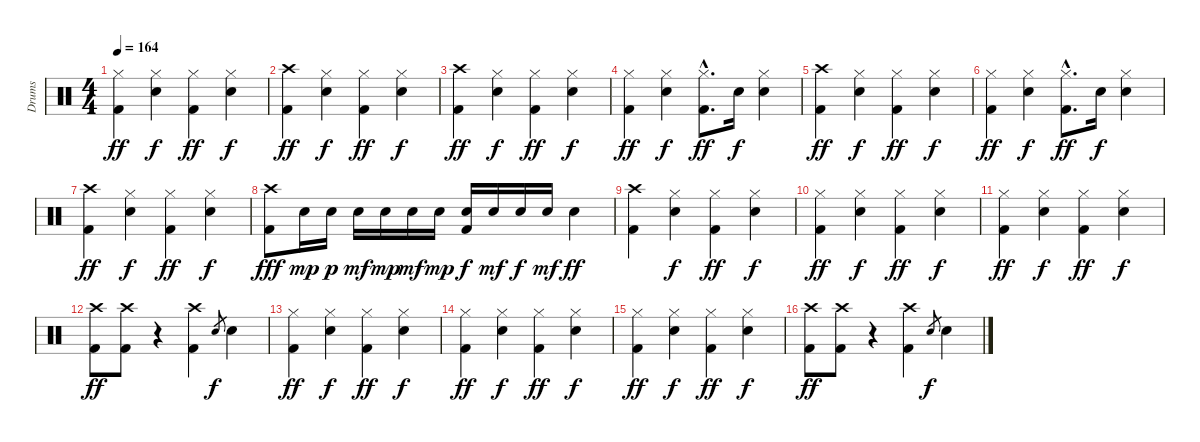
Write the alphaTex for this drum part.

\track ("Drums" "Drums") {instrument percussion}
\staff {score}
\articulation defaults
\ts (4 4)
\tempo 164
\clef neutral
\ks c
("Hi-Hat (closed)" "Kick (hit) 2").4{dy ff} ("Hi-Hat (closed)" "Snare (hit) 2").4{dy f} ("Hi-Hat (closed)" "Kick (hit) 2").4{dy ff} ("Hi-Hat (closed)" "Snare (hit) 2").4{dy f} |
("Crash high (hit)" "Kick (hit) 2").4{dy ff} ("Hi-Hat (closed)" "Snare (hit) 2").4{dy f} ("Hi-Hat (closed)" "Kick (hit) 2").4{dy ff} ("Hi-Hat (closed)" "Snare (hit) 2").4{dy f} |
("Crash high (hit)" "Kick (hit) 2").4{dy ff} ("Hi-Hat (closed)" "Snare (hit) 2").4{dy f} ("Hi-Hat (closed)" "Kick (hit) 2").4{dy ff} ("Hi-Hat (closed)" "Snare (hit) 2").4{dy f} |
("Hi-Hat (closed)" "Kick (hit) 2").4{dy ff} ("Hi-Hat (closed)" "Snare (hit) 2").4{dy f} ("Hi-Hat (closed)"{hac} "Kick (hit) 2"{hac}).8{d dy ff} "Snare (hit) 2".16{dy f} ("Hi-Hat (closed)" "Snare (hit) 2").4 |
("Crash high (hit)" "Kick (hit) 2").4{dy ff} ("Hi-Hat (closed)" "Snare (hit) 2").4{dy f} ("Hi-Hat (closed)" "Kick (hit) 2").4{dy ff} ("Hi-Hat (closed)" "Snare (hit) 2").4{dy f} |
("Hi-Hat (closed)" "Kick (hit) 2").4{dy ff} ("Hi-Hat (closed)" "Snare (hit) 2").4{dy f} ("Hi-Hat (closed)"{hac} "Kick (hit) 2"{hac}).8{d dy ff} "Snare (hit) 2".16{dy f} ("Hi-Hat (closed)" "Snare (hit) 2").4 |
("Crash high (hit)" "Kick (hit) 2").4{dy ff} ("Hi-Hat (closed)" "Snare (hit) 2").4{dy f} ("Hi-Hat (closed)" "Kick (hit) 2").4{dy ff} ("Hi-Hat (closed)" "Snare (hit) 2").4{dy f} |
("Crash high (hit)" "Kick (hit) 2").8{dy fff} "Snare (hit) 2".16{dy mp} "Snare (hit) 2".16{dy p} "Snare (hit) 2".16{dy mf} "Snare (hit) 2".16{dy mp} "Snare (hit) 2".16{dy mf} "Snare (hit) 2".16{dy mp} ("Snare (hit) 2" "Kick (hit) 2").16{dy f} "Snare (hit) 2".16{dy mf} "Snare (hit) 2".16{dy f} "Snare (hit) 2".16{dy mf} "Snare (hit) 2".4{dy ff} |
("Crash high (hit)" "Kick (hit) 2").4 ("Hi-Hat (closed)" "Snare (hit) 2").4{dy f} ("Hi-Hat (closed)" "Kick (hit) 2").4{dy ff} ("Hi-Hat (closed)" "Snare (hit) 2").4{dy f} |
("Hi-Hat (closed)" "Kick (hit) 2").4{dy ff} ("Hi-Hat (closed)" "Snare (hit) 2").4{dy f} ("Hi-Hat (closed)" "Kick (hit) 2").4{dy ff} ("Hi-Hat (closed)" "Snare (hit) 2").4{dy f} |
("Hi-Hat (closed)" "Kick (hit) 2").4{dy ff} ("Hi-Hat (closed)" "Snare (hit) 2").4{dy f} ("Hi-Hat (closed)" "Kick (hit) 2").4{dy ff} ("Hi-Hat (closed)" "Snare (hit) 2").4{dy f} |
("Crash high (hit)" "Kick (hit) 2").8{dy ff} ("Crash high (hit)" "Kick (hit) 2").8 r.4 ("Crash high (hit)" "Kick (hit) 2").4 "Snare (hit) 2".8{gr dy f} "Snare (hit) 2".4 |
("Hi-Hat (closed)" "Kick (hit) 2").4{dy ff} ("Hi-Hat (closed)" "Snare (hit) 2").4{dy f} ("Hi-Hat (closed)" "Kick (hit) 2").4{dy ff} ("Hi-Hat (closed)" "Snare (hit) 2").4{dy f} |
("Hi-Hat (closed)" "Kick (hit) 2").4{dy ff} ("Hi-Hat (closed)" "Snare (hit) 2").4{dy f} ("Hi-Hat (closed)" "Kick (hit) 2").4{dy ff} ("Hi-Hat (closed)" "Snare (hit) 2").4{dy f} |
("Hi-Hat (closed)" "Kick (hit) 2").4{dy ff} ("Hi-Hat (closed)" "Snare (hit) 2").4{dy f} ("Hi-Hat (closed)" "Kick (hit) 2").4{dy ff} ("Hi-Hat (closed)" "Snare (hit) 2").4{dy f} |
("Crash high (hit)" "Kick (hit) 2").8{dy ff} ("Crash high (hit)" "Kick (hit) 2").8 r.4 ("Crash high (hit)" "Kick (hit) 2").4 "Snare (hit) 2".8{gr dy f} "Snare (hit) 2".4
